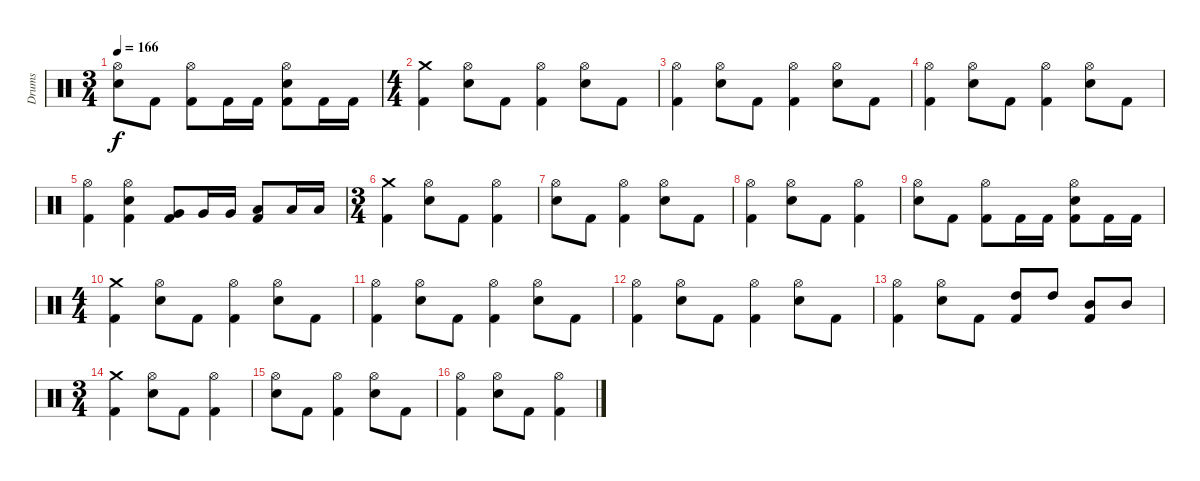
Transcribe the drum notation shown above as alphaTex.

\track ("Drums" "Drums") {instrument percussion}
\staff {score}
\articulation defaults
\ts (3 4)
\tempo 166
\clef neutral
\ks c
("Hi-Hat (open)" "Snare (hit) 2").8{dy f} "Kick (hit) 2".8 ("Hi-Hat (open)" "Kick (hit) 2").8 "Kick (hit) 2".16 "Kick (hit) 2".16 ("Hi-Hat (open)" "Snare (hit) 2" "Kick (hit) 2").8 "Kick (hit) 2".16 "Kick (hit) 2".16 |
\ts (4 4)
("Crash medium (hit)" "Kick (hit) 2").4 ("Hi-Hat (open)" "Snare (hit) 2").8 "Kick (hit) 2".8 ("Hi-Hat (open)" "Kick (hit) 2").4 ("Hi-Hat (open)" "Snare (hit) 2").8 "Kick (hit) 2".8 |
("Hi-Hat (open)" "Kick (hit) 2").4 ("Hi-Hat (open)" "Snare (hit) 2").8 "Kick (hit) 2".8 ("Hi-Hat (open)" "Kick (hit) 2").4 ("Hi-Hat (open)" "Snare (hit) 2").8 "Kick (hit) 2".8 |
("Hi-Hat (open)" "Kick (hit) 2").4 ("Hi-Hat (open)" "Snare (hit) 2").8 "Kick (hit) 2".8 ("Hi-Hat (open)" "Kick (hit) 2").4 ("Hi-Hat (open)" "Snare (hit) 2").8 "Kick (hit) 2".8 |
("Hi-Hat (open)" "Kick (hit) 2").4 ("Hi-Hat (open)" "Snare (hit) 2" "Kick (hit) 2").4 ("Very Low Tom (hit)" "Kick (hit) 2").8 "Very Low Tom (hit)".16 "Very Low Tom (hit)".16 ("Low Tom (hit)" "Kick (hit) 2").8 "Low Tom (hit)".16 "Low Tom (hit)".16 |
\ts (3 4)
("Crash medium (hit)" "Kick (hit) 2").4 ("Hi-Hat (open)" "Snare (hit) 2").8 "Kick (hit) 2".8 ("Hi-Hat (open)" "Kick (hit) 2").4 |
("Hi-Hat (open)" "Snare (hit) 2").8 "Kick (hit) 2".8 ("Hi-Hat (open)" "Kick (hit) 2").4 ("Hi-Hat (open)" "Snare (hit) 2").8 "Kick (hit) 2".8 |
("Hi-Hat (open)" "Kick (hit) 2").4 ("Hi-Hat (open)" "Snare (hit) 2").8 "Kick (hit) 2".8 ("Hi-Hat (open)" "Kick (hit) 2").4 |
("Hi-Hat (open)" "Snare (hit) 2").8 "Kick (hit) 2".8 ("Hi-Hat (open)" "Kick (hit) 2").8 "Kick (hit) 2".16 "Kick (hit) 2".16 ("Hi-Hat (open)" "Snare (hit) 2" "Kick (hit) 2").8 "Kick (hit) 2".16 "Kick (hit) 2".16 |
\ts (4 4)
("Crash medium (hit)" "Kick (hit) 2").4 ("Hi-Hat (open)" "Snare (hit) 2").8 "Kick (hit) 2".8 ("Hi-Hat (open)" "Kick (hit) 2").4 ("Hi-Hat (open)" "Snare (hit) 2").8 "Kick (hit) 2".8 |
("Hi-Hat (open)" "Kick (hit) 2").4 ("Hi-Hat (open)" "Snare (hit) 2").8 "Kick (hit) 2".8 ("Hi-Hat (open)" "Kick (hit) 2").4 ("Hi-Hat (open)" "Snare (hit) 2").8 "Kick (hit) 2".8 |
("Hi-Hat (open)" "Kick (hit) 2").4 ("Hi-Hat (open)" "Snare (hit) 2").8 "Kick (hit) 2".8 ("Hi-Hat (open)" "Kick (hit) 2").4 ("Hi-Hat (open)" "Snare (hit) 2").8 "Kick (hit) 2".8 |
("Hi-Hat (open)" "Kick (hit) 2").4 ("Hi-Hat (open)" "Snare (hit) 2").8 "Kick (hit) 2".8 ("High Tom (hit)" "Kick (hit) 2").8 "High Tom (hit)".8 ("Mid Tom (hit)" "Kick (hit) 2").8 "Mid Tom (hit)".8 |
\ts (3 4)
("Crash medium (hit)" "Kick (hit) 2").4 ("Hi-Hat (open)" "Snare (hit) 2").8 "Kick (hit) 2".8 ("Hi-Hat (open)" "Kick (hit) 2").4 |
("Hi-Hat (open)" "Snare (hit) 2").8 "Kick (hit) 2".8 ("Hi-Hat (open)" "Kick (hit) 2").4 ("Hi-Hat (open)" "Snare (hit) 2").8 "Kick (hit) 2".8 |
("Hi-Hat (open)" "Kick (hit) 2").4 ("Hi-Hat (open)" "Snare (hit) 2").8 "Kick (hit) 2".8 ("Hi-Hat (open)" "Kick (hit) 2").4
